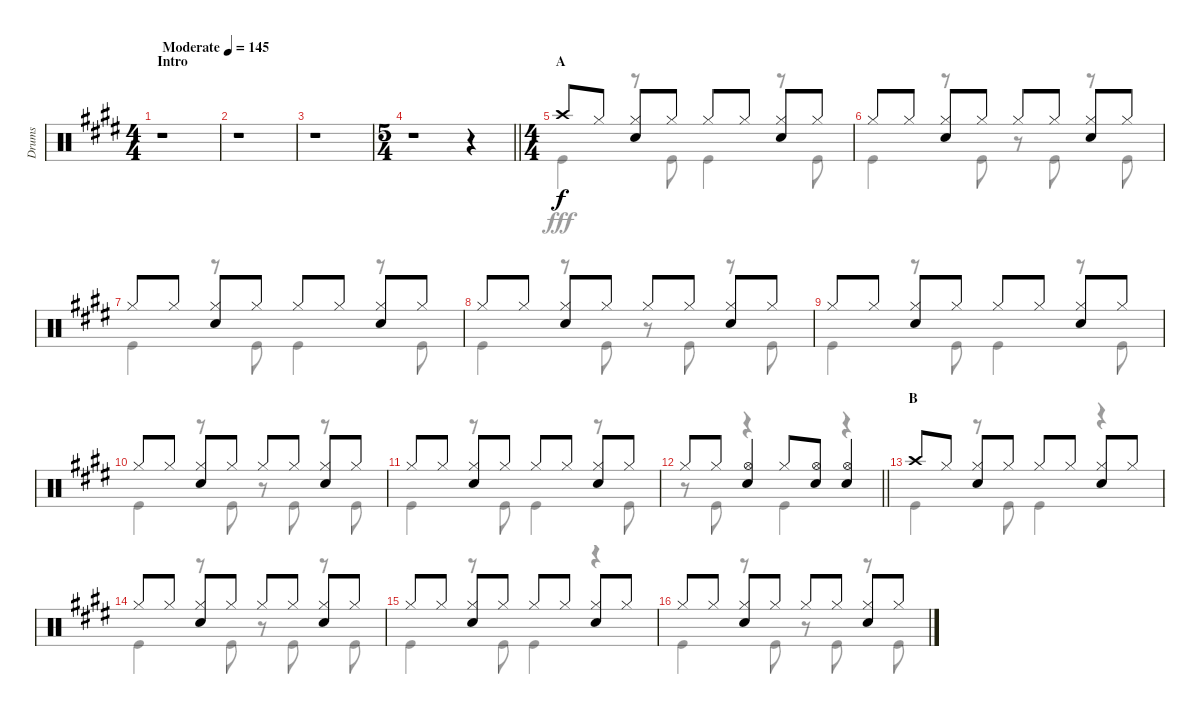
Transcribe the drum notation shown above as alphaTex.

\track ("Drums" "Drums") {instrument percussion}
\staff {score}
\articulation defaults
\voice
\ts (4 4)
\section ("" "Intro")
\tempo (145 "Moderate")
\clef neutral
\ks e
r.1{dy f} |
r.1 |
r.1 |
\ts (5 4)
\barLineRight lightlight
r.1 r.4 |
\ts (4 4)
\section ("" "A")
"Crash high (hit)".8 "Hi-Hat (closed)".8 ("Hi-Hat (closed)" "Snare (hit) 2").8 "Hi-Hat (closed)".8 "Hi-Hat (closed)".8 "Hi-Hat (closed)".8 ("Hi-Hat (closed)" "Snare (hit) 2").8 "Hi-Hat (closed)".8 |
"Hi-Hat (closed)".8 "Hi-Hat (closed)".8 ("Hi-Hat (closed)" "Snare (hit) 2").8 "Hi-Hat (closed)".8 "Hi-Hat (closed)".8 "Hi-Hat (closed)".8 ("Hi-Hat (closed)" "Snare (hit) 2").8 "Hi-Hat (closed)".8 |
"Hi-Hat (closed)".8 "Hi-Hat (closed)".8 ("Hi-Hat (closed)" "Snare (hit) 2").8 "Hi-Hat (closed)".8 "Hi-Hat (closed)".8 "Hi-Hat (closed)".8 ("Hi-Hat (closed)" "Snare (hit) 2").8 "Hi-Hat (closed)".8 |
"Hi-Hat (closed)".8 "Hi-Hat (closed)".8 ("Hi-Hat (closed)" "Snare (hit) 2").8 "Hi-Hat (closed)".8 "Hi-Hat (closed)".8 "Hi-Hat (closed)".8 ("Hi-Hat (closed)" "Snare (hit) 2").8 "Hi-Hat (closed)".8 |
"Hi-Hat (closed)".8 "Hi-Hat (closed)".8 ("Hi-Hat (closed)" "Snare (hit) 2").8 "Hi-Hat (closed)".8 "Hi-Hat (closed)".8 "Hi-Hat (closed)".8 ("Hi-Hat (closed)" "Snare (hit) 2").8 "Hi-Hat (closed)".8 |
"Hi-Hat (closed)".8 "Hi-Hat (closed)".8 ("Hi-Hat (closed)" "Snare (hit) 2").8 "Hi-Hat (closed)".8 "Hi-Hat (closed)".8 "Hi-Hat (closed)".8 ("Hi-Hat (closed)" "Snare (hit) 2").8 "Hi-Hat (closed)".8 |
"Hi-Hat (closed)".8 "Hi-Hat (closed)".8 ("Hi-Hat (closed)" "Snare (hit) 2").8 "Hi-Hat (closed)".8 "Hi-Hat (closed)".8 "Hi-Hat (closed)".8 ("Hi-Hat (closed)" "Snare (hit) 2").8 "Hi-Hat (closed)".8 |
\barLineRight lightlight "Hi-Hat (closed)".8 "Hi-Hat (closed)".8
("Hi-Hat (open)" "Snare (hit) 2").4 "Hi-Hat (closed)".8 ("Hi-Hat (open)" "Snare (hit) 2").8 ("Hi-Hat (open)" "Snare (hit) 2").4 |
\section ("" "B")
"Crash high (hit)".8 "Hi-Hat (closed)".8 ("Hi-Hat (closed)" "Snare (hit) 2").8 "Hi-Hat (closed)".8 "Hi-Hat (closed)".8 "Hi-Hat (closed)".8 ("Hi-Hat (closed)" "Snare (hit) 2").8 "Hi-Hat (closed)".8 |
"Hi-Hat (closed)".8 "Hi-Hat (closed)".8 ("Hi-Hat (closed)" "Snare (hit) 2").8 "Hi-Hat (closed)".8 "Hi-Hat (closed)".8 "Hi-Hat (closed)".8 ("Hi-Hat (closed)" "Snare (hit) 2").8 "Hi-Hat (closed)".8 |
"Hi-Hat (closed)".8 "Hi-Hat (closed)".8 ("Hi-Hat (closed)" "Snare (hit) 2").8 "Hi-Hat (closed)".8 "Hi-Hat (closed)".8 "Hi-Hat (closed)".8 ("Hi-Hat (closed)" "Snare (hit) 2").8 "Hi-Hat (closed)".8 |
"Hi-Hat (closed)".8 "Hi-Hat (closed)".8 ("Hi-Hat (closed)" "Snare (hit) 2").8 "Hi-Hat (closed)".8 "Hi-Hat (closed)".8 "Hi-Hat (closed)".8 ("Hi-Hat (closed)" "Snare (hit) 2").8 "Hi-Hat (closed)".8
\voice
\clef neutral
\ottava regular
\simile none
\ks e
r.1{dy fff} |
r.1 |
r.1 |
\barLineRight lightlight
r.1 r.4 |
"Kick (hit)".4 r.8 "Kick (hit)".8 "Kick (hit)".4 r.8 "Kick (hit)".8 |
"Kick (hit)".4 r.8 "Kick (hit)".8 r.8 "Kick (hit)".8 r.8 "Kick (hit)".8 |
"Kick (hit)".4 r.8 "Kick (hit)".8 "Kick (hit)".4 r.8 "Kick (hit)".8 |
"Kick (hit)".4 r.8 "Kick (hit)".8 r.8 "Kick (hit)".8 r.8 "Kick (hit)".8 |
"Kick (hit)".4 r.8 "Kick (hit)".8 "Kick (hit)".4 r.8 "Kick (hit)".8 |
"Kick (hit)".4 r.8 "Kick (hit)".8 r.8 "Kick (hit)".8 r.8 "Kick (hit)".8 |
"Kick (hit)".4 r.8 "Kick (hit)".8 "Kick (hit)".4 r.8 "Kick (hit)".8 |
\barLineRight lightlight
r.8 "Kick (hit)".8 r.4 "Kick (hit)".4 r.4 |
"Kick (hit)".4 r.8 "Kick (hit)".8 "Kick (hit)".4 r.4 |
"Kick (hit)".4 r.8 "Kick (hit)".8 r.8 "Kick (hit)".8 r.8 "Kick (hit)".8 |
"Kick (hit)".4 r.8 "Kick (hit)".8 "Kick (hit)".4 r.4 |
"Kick (hit)".4 r.8 "Kick (hit)".8 r.8 "Kick (hit)".8 r.8 "Kick (hit)".8
